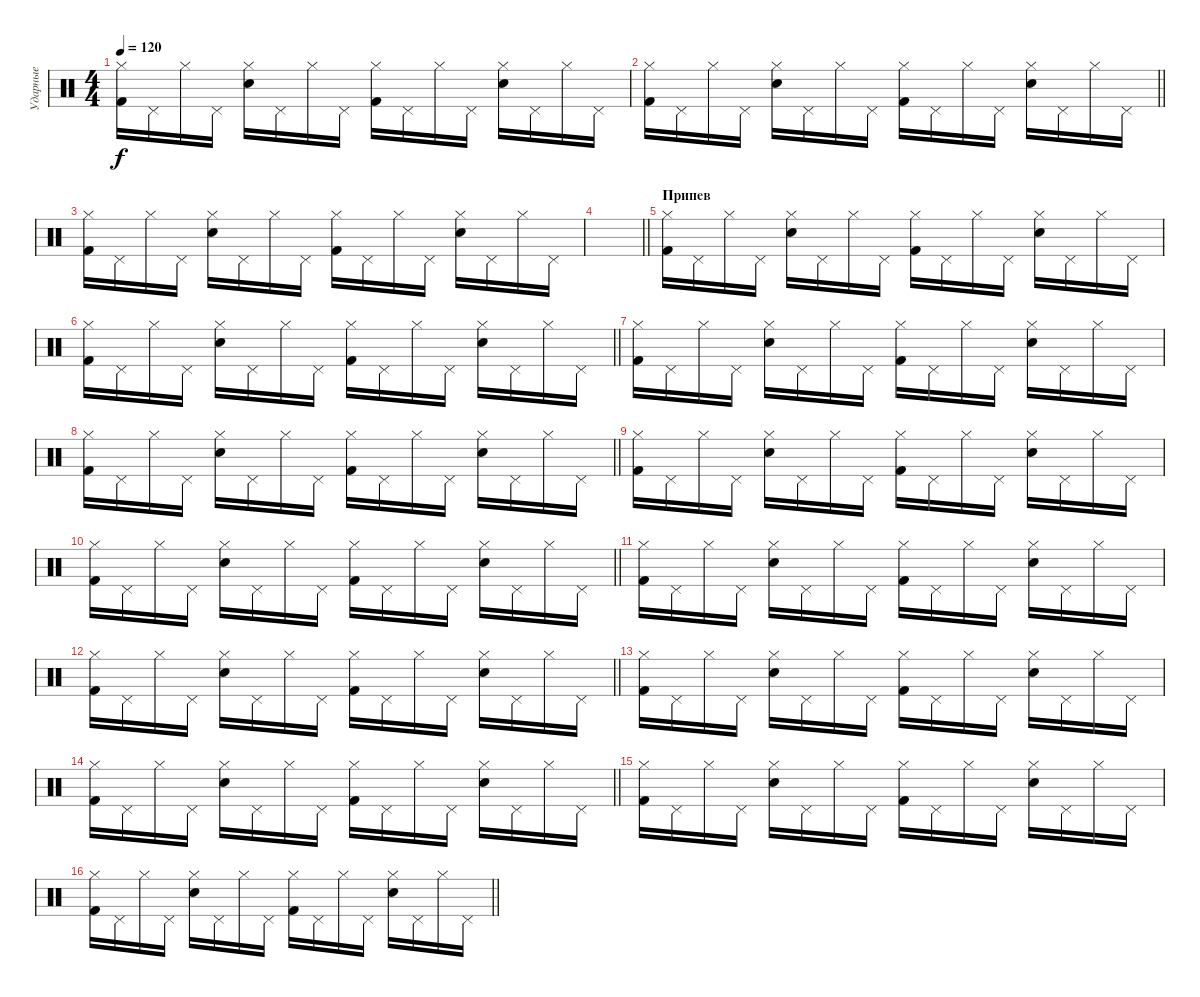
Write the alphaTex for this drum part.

\track ("Ударные" "Ударные") {instrument percussion}
\staff {score}
\articulation defaults
\ts (4 4)
\tempo 120
\clef neutral
\ks c
("Hi-Hat (closed)" "Kick (hit) 2").16{dy f} "Pedal Hi-Hat (hit)".16 "Hi-Hat (closed)".16 "Pedal Hi-Hat (hit)".16 ("Hi-Hat (closed)" "Snare (hit) 2").16 "Pedal Hi-Hat (hit)".16 "Hi-Hat (closed)".16 "Pedal Hi-Hat (hit)".16 ("Hi-Hat (closed)" "Kick (hit) 2").16 "Pedal Hi-Hat (hit)".16 "Hi-Hat (closed)".16 "Pedal Hi-Hat (hit)".16 ("Hi-Hat (closed)" "Snare (hit) 2").16 "Pedal Hi-Hat (hit)".16 "Hi-Hat (closed)".16 "Pedal Hi-Hat (hit)".16 |
\barLineRight lightlight
("Hi-Hat (closed)" "Kick (hit) 2").16 "Pedal Hi-Hat (hit)".16 "Hi-Hat (closed)".16 "Pedal Hi-Hat (hit)".16 ("Hi-Hat (closed)" "Snare (hit) 2").16 "Pedal Hi-Hat (hit)".16 "Hi-Hat (closed)".16 "Pedal Hi-Hat (hit)".16 ("Hi-Hat (closed)" "Kick (hit) 2").16 "Pedal Hi-Hat (hit)".16 "Hi-Hat (closed)".16 "Pedal Hi-Hat (hit)".16 ("Hi-Hat (closed)" "Snare (hit) 2").16 "Pedal Hi-Hat (hit)".16 "Hi-Hat (closed)".16 "Pedal Hi-Hat (hit)".16 |
("Hi-Hat (closed)" "Kick (hit) 2").16 "Pedal Hi-Hat (hit)".16 "Hi-Hat (closed)".16 "Pedal Hi-Hat (hit)".16 ("Hi-Hat (closed)" "Snare (hit) 2").16 "Pedal Hi-Hat (hit)".16 "Hi-Hat (closed)".16 "Pedal Hi-Hat (hit)".16 ("Hi-Hat (closed)" "Kick (hit) 2").16 "Pedal Hi-Hat (hit)".16 "Hi-Hat (closed)".16 "Pedal Hi-Hat (hit)".16 ("Hi-Hat (closed)" "Snare (hit) 2").16 "Pedal Hi-Hat (hit)".16 "Hi-Hat (closed)".16 "Pedal Hi-Hat (hit)".16 |
\barLineRight lightlight
|
\section ("" "Припев")
("Hi-Hat (closed)" "Kick (hit) 2").16 "Pedal Hi-Hat (hit)".16 "Hi-Hat (closed)".16 "Pedal Hi-Hat (hit)".16 ("Hi-Hat (closed)" "Snare (hit) 2").16 "Pedal Hi-Hat (hit)".16 "Hi-Hat (closed)".16 "Pedal Hi-Hat (hit)".16 ("Hi-Hat (closed)" "Kick (hit) 2").16 "Pedal Hi-Hat (hit)".16 "Hi-Hat (closed)".16 "Pedal Hi-Hat (hit)".16 ("Hi-Hat (closed)" "Snare (hit) 2").16 "Pedal Hi-Hat (hit)".16 "Hi-Hat (closed)".16 "Pedal Hi-Hat (hit)".16 |
\barLineRight lightlight
("Hi-Hat (closed)" "Kick (hit) 2").16 "Pedal Hi-Hat (hit)".16 "Hi-Hat (closed)".16 "Pedal Hi-Hat (hit)".16 ("Hi-Hat (closed)" "Snare (hit) 2").16 "Pedal Hi-Hat (hit)".16 "Hi-Hat (closed)".16 "Pedal Hi-Hat (hit)".16 ("Hi-Hat (closed)" "Kick (hit) 2").16 "Pedal Hi-Hat (hit)".16 "Hi-Hat (closed)".16 "Pedal Hi-Hat (hit)".16 ("Hi-Hat (closed)" "Snare (hit) 2").16 "Pedal Hi-Hat (hit)".16 "Hi-Hat (closed)".16 "Pedal Hi-Hat (hit)".16 |
("Hi-Hat (closed)" "Kick (hit) 2").16 "Pedal Hi-Hat (hit)".16 "Hi-Hat (closed)".16 "Pedal Hi-Hat (hit)".16 ("Hi-Hat (closed)" "Snare (hit) 2").16 "Pedal Hi-Hat (hit)".16 "Hi-Hat (closed)".16 "Pedal Hi-Hat (hit)".16 ("Hi-Hat (closed)" "Kick (hit) 2").16 "Pedal Hi-Hat (hit)".16 "Hi-Hat (closed)".16 "Pedal Hi-Hat (hit)".16 ("Hi-Hat (closed)" "Snare (hit) 2").16 "Pedal Hi-Hat (hit)".16 "Hi-Hat (closed)".16 "Pedal Hi-Hat (hit)".16 |
\barLineRight lightlight
("Hi-Hat (closed)" "Kick (hit) 2").16 "Pedal Hi-Hat (hit)".16 "Hi-Hat (closed)".16 "Pedal Hi-Hat (hit)".16 ("Hi-Hat (closed)" "Snare (hit) 2").16 "Pedal Hi-Hat (hit)".16 "Hi-Hat (closed)".16 "Pedal Hi-Hat (hit)".16 ("Hi-Hat (closed)" "Kick (hit) 2").16 "Pedal Hi-Hat (hit)".16 "Hi-Hat (closed)".16 "Pedal Hi-Hat (hit)".16 ("Hi-Hat (closed)" "Snare (hit) 2").16 "Pedal Hi-Hat (hit)".16 "Hi-Hat (closed)".16 "Pedal Hi-Hat (hit)".16 |
("Hi-Hat (closed)" "Kick (hit) 2").16 "Pedal Hi-Hat (hit)".16 "Hi-Hat (closed)".16 "Pedal Hi-Hat (hit)".16 ("Hi-Hat (closed)" "Snare (hit) 2").16 "Pedal Hi-Hat (hit)".16 "Hi-Hat (closed)".16 "Pedal Hi-Hat (hit)".16 ("Hi-Hat (closed)" "Kick (hit) 2").16 "Pedal Hi-Hat (hit)".16 "Hi-Hat (closed)".16 "Pedal Hi-Hat (hit)".16 ("Hi-Hat (closed)" "Snare (hit) 2").16 "Pedal Hi-Hat (hit)".16 "Hi-Hat (closed)".16 "Pedal Hi-Hat (hit)".16 |
\barLineRight lightlight
("Hi-Hat (closed)" "Kick (hit) 2").16 "Pedal Hi-Hat (hit)".16 "Hi-Hat (closed)".16 "Pedal Hi-Hat (hit)".16 ("Hi-Hat (closed)" "Snare (hit) 2").16 "Pedal Hi-Hat (hit)".16 "Hi-Hat (closed)".16 "Pedal Hi-Hat (hit)".16 ("Hi-Hat (closed)" "Kick (hit) 2").16 "Pedal Hi-Hat (hit)".16 "Hi-Hat (closed)".16 "Pedal Hi-Hat (hit)".16 ("Hi-Hat (closed)" "Snare (hit) 2").16 "Pedal Hi-Hat (hit)".16 "Hi-Hat (closed)".16 "Pedal Hi-Hat (hit)".16 |
("Hi-Hat (closed)" "Kick (hit) 2").16 "Pedal Hi-Hat (hit)".16 "Hi-Hat (closed)".16 "Pedal Hi-Hat (hit)".16 ("Hi-Hat (closed)" "Snare (hit) 2").16 "Pedal Hi-Hat (hit)".16 "Hi-Hat (closed)".16 "Pedal Hi-Hat (hit)".16 ("Hi-Hat (closed)" "Kick (hit) 2").16 "Pedal Hi-Hat (hit)".16 "Hi-Hat (closed)".16 "Pedal Hi-Hat (hit)".16 ("Hi-Hat (closed)" "Snare (hit) 2").16 "Pedal Hi-Hat (hit)".16 "Hi-Hat (closed)".16 "Pedal Hi-Hat (hit)".16 |
\barLineRight lightlight
("Hi-Hat (closed)" "Kick (hit) 2").16 "Pedal Hi-Hat (hit)".16 "Hi-Hat (closed)".16 "Pedal Hi-Hat (hit)".16 ("Hi-Hat (closed)" "Snare (hit) 2").16 "Pedal Hi-Hat (hit)".16 "Hi-Hat (closed)".16 "Pedal Hi-Hat (hit)".16 ("Hi-Hat (closed)" "Kick (hit) 2").16 "Pedal Hi-Hat (hit)".16 "Hi-Hat (closed)".16 "Pedal Hi-Hat (hit)".16 ("Hi-Hat (closed)" "Snare (hit) 2").16 "Pedal Hi-Hat (hit)".16 "Hi-Hat (closed)".16 "Pedal Hi-Hat (hit)".16 |
("Hi-Hat (closed)" "Kick (hit) 2").16 "Pedal Hi-Hat (hit)".16 "Hi-Hat (closed)".16 "Pedal Hi-Hat (hit)".16 ("Hi-Hat (closed)" "Snare (hit) 2").16 "Pedal Hi-Hat (hit)".16 "Hi-Hat (closed)".16 "Pedal Hi-Hat (hit)".16 ("Hi-Hat (closed)" "Kick (hit) 2").16 "Pedal Hi-Hat (hit)".16 "Hi-Hat (closed)".16 "Pedal Hi-Hat (hit)".16 ("Hi-Hat (closed)" "Snare (hit) 2").16 "Pedal Hi-Hat (hit)".16 "Hi-Hat (closed)".16 "Pedal Hi-Hat (hit)".16 |
\barLineRight lightlight
("Hi-Hat (closed)" "Kick (hit) 2").16 "Pedal Hi-Hat (hit)".16 "Hi-Hat (closed)".16 "Pedal Hi-Hat (hit)".16 ("Hi-Hat (closed)" "Snare (hit) 2").16 "Pedal Hi-Hat (hit)".16 "Hi-Hat (closed)".16 "Pedal Hi-Hat (hit)".16 ("Hi-Hat (closed)" "Kick (hit) 2").16 "Pedal Hi-Hat (hit)".16 "Hi-Hat (closed)".16 "Pedal Hi-Hat (hit)".16 ("Hi-Hat (closed)" "Snare (hit) 2").16 "Pedal Hi-Hat (hit)".16 "Hi-Hat (closed)".16 "Pedal Hi-Hat (hit)".16 |
("Hi-Hat (closed)" "Kick (hit) 2").16 "Pedal Hi-Hat (hit)".16 "Hi-Hat (closed)".16 "Pedal Hi-Hat (hit)".16 ("Hi-Hat (closed)" "Snare (hit) 2").16 "Pedal Hi-Hat (hit)".16 "Hi-Hat (closed)".16 "Pedal Hi-Hat (hit)".16 ("Hi-Hat (closed)" "Kick (hit) 2").16 "Pedal Hi-Hat (hit)".16 "Hi-Hat (closed)".16 "Pedal Hi-Hat (hit)".16 ("Hi-Hat (closed)" "Snare (hit) 2").16 "Pedal Hi-Hat (hit)".16 "Hi-Hat (closed)".16 "Pedal Hi-Hat (hit)".16 |
\barLineRight lightlight
("Hi-Hat (closed)" "Kick (hit) 2").16 "Pedal Hi-Hat (hit)".16 "Hi-Hat (closed)".16 "Pedal Hi-Hat (hit)".16 ("Hi-Hat (closed)" "Snare (hit) 2").16 "Pedal Hi-Hat (hit)".16 "Hi-Hat (closed)".16 "Pedal Hi-Hat (hit)".16 ("Hi-Hat (closed)" "Kick (hit) 2").16 "Pedal Hi-Hat (hit)".16 "Hi-Hat (closed)".16 "Pedal Hi-Hat (hit)".16 ("Hi-Hat (closed)" "Snare (hit) 2").16 "Pedal Hi-Hat (hit)".16 "Hi-Hat (closed)".16 "Pedal Hi-Hat (hit)".16
